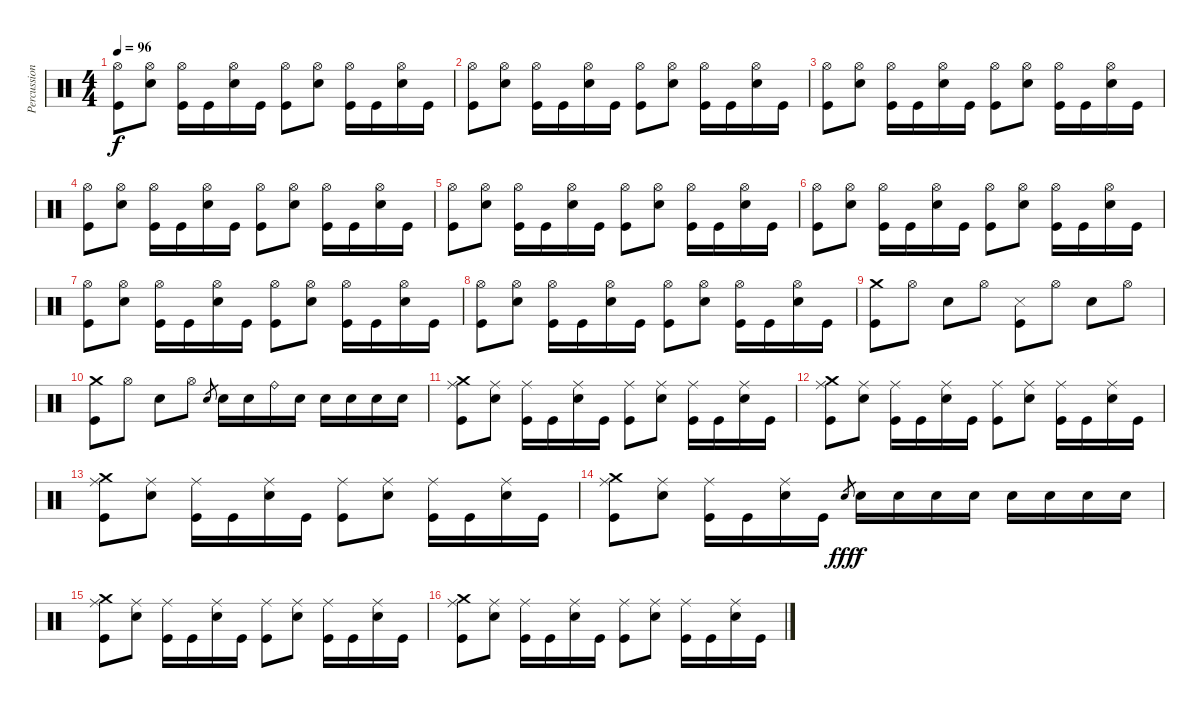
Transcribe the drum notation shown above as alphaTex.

\track ("Percussion" "Percussion") {instrument percussion}
\staff {score}
\articulation defaults
\ts (4 4)
\tempo 96
\clef neutral
\ks c
("Hi-Hat (open)" "Kick (hit)").8{dy f} ("Hi-Hat (open)" "Electric Snare (hit)").8 ("Hi-Hat (open)" "Kick (hit)").16 "Kick (hit)".16 ("Hi-Hat (open)" "Electric Snare (hit)").16 "Kick (hit)".16 ("Hi-Hat (open)" "Kick (hit)").8 ("Hi-Hat (open)" "Electric Snare (hit)").8 ("Hi-Hat (open)" "Kick (hit)").16 "Kick (hit)".16 ("Hi-Hat (open)" "Electric Snare (hit)").16 "Kick (hit)".16 |
("Hi-Hat (open)" "Kick (hit)").8 ("Hi-Hat (open)" "Electric Snare (hit)").8 ("Hi-Hat (open)" "Kick (hit)").16 "Kick (hit)".16 ("Hi-Hat (open)" "Electric Snare (hit)").16 "Kick (hit)".16 ("Hi-Hat (open)" "Kick (hit)").8 ("Hi-Hat (open)" "Electric Snare (hit)").8 ("Hi-Hat (open)" "Kick (hit)").16 "Kick (hit)".16 ("Hi-Hat (open)" "Electric Snare (hit)").16 "Kick (hit)".16 |
("Hi-Hat (open)" "Kick (hit)").8 ("Hi-Hat (open)" "Electric Snare (hit)").8 ("Hi-Hat (open)" "Kick (hit)").16 "Kick (hit)".16 ("Hi-Hat (open)" "Electric Snare (hit)").16 "Kick (hit)".16 ("Hi-Hat (open)" "Kick (hit)").8 ("Hi-Hat (open)" "Electric Snare (hit)").8 ("Hi-Hat (open)" "Kick (hit)").16 "Kick (hit)".16 ("Hi-Hat (open)" "Electric Snare (hit)").16 "Kick (hit)".16 |
("Hi-Hat (open)" "Kick (hit)").8 ("Hi-Hat (open)" "Electric Snare (hit)").8 ("Hi-Hat (open)" "Kick (hit)").16 "Kick (hit)".16 ("Hi-Hat (open)" "Electric Snare (hit)").16 "Kick (hit)".16 ("Hi-Hat (open)" "Kick (hit)").8 ("Hi-Hat (open)" "Electric Snare (hit)").8 ("Hi-Hat (open)" "Kick (hit)").16 "Kick (hit)".16 ("Hi-Hat (open)" "Electric Snare (hit)").16 "Kick (hit)".16 |
("Hi-Hat (open)" "Kick (hit)").8 ("Hi-Hat (open)" "Electric Snare (hit)").8 ("Hi-Hat (open)" "Kick (hit)").16 "Kick (hit)".16 ("Hi-Hat (open)" "Electric Snare (hit)").16 "Kick (hit)".16 ("Hi-Hat (open)" "Kick (hit)").8 ("Hi-Hat (open)" "Electric Snare (hit)").8 ("Hi-Hat (open)" "Kick (hit)").16 "Kick (hit)".16 ("Hi-Hat (open)" "Electric Snare (hit)").16 "Kick (hit)".16 |
("Hi-Hat (open)" "Kick (hit)").8 ("Hi-Hat (open)" "Electric Snare (hit)").8 ("Hi-Hat (open)" "Kick (hit)").16 "Kick (hit)".16 ("Hi-Hat (open)" "Electric Snare (hit)").16 "Kick (hit)".16 ("Hi-Hat (open)" "Kick (hit)").8 ("Hi-Hat (open)" "Electric Snare (hit)").8 ("Hi-Hat (open)" "Kick (hit)").16 "Kick (hit)".16 ("Hi-Hat (open)" "Electric Snare (hit)").16 "Kick (hit)".16 |
("Hi-Hat (open)" "Kick (hit)").8 ("Hi-Hat (open)" "Electric Snare (hit)").8 ("Hi-Hat (open)" "Kick (hit)").16 "Kick (hit)".16 ("Hi-Hat (open)" "Electric Snare (hit)").16 "Kick (hit)".16 ("Hi-Hat (open)" "Kick (hit)").8 ("Hi-Hat (open)" "Electric Snare (hit)").8 ("Hi-Hat (open)" "Kick (hit)").16 "Kick (hit)".16 ("Hi-Hat (open)" "Electric Snare (hit)").16 "Kick (hit)".16 |
("Hi-Hat (open)" "Kick (hit)").8 ("Hi-Hat (open)" "Electric Snare (hit)").8 ("Hi-Hat (open)" "Kick (hit)").16 "Kick (hit)".16 ("Hi-Hat (open)" "Electric Snare (hit)").16 "Kick (hit)".16 ("Hi-Hat (open)" "Kick (hit)").8 ("Hi-Hat (open)" "Electric Snare (hit)").8 ("Hi-Hat (open)" "Kick (hit)").16 "Kick (hit)".16 ("Hi-Hat (open)" "Electric Snare (hit)").16 "Kick (hit)".16 |
("Crash medium (hit)" "Kick (hit)").8 "Hi-Hat (open)".8 "Electric Snare (hit)".8 "Hi-Hat (open)".8 ("Snare (side stick) 3" "Kick (hit)").8 "Hi-Hat (open)".8 "Electric Snare (hit)".8 "Hi-Hat (open)".8 |
("Crash medium (hit)" "Kick (hit)").8 "Hi-Hat (open)".8 "Electric Snare (hit)".8 "Hi-Hat (open)".8 "Electric Snare (hit)".8{gr} "Electric Snare (hit)".16 "Electric Snare (hit)".16 "Ride (bell)".16 "Electric Snare (hit)".16 "Electric Snare (hit)".16 "Electric Snare (hit)".16 "Electric Snare (hit)".16 "Electric Snare (hit)".16 |
("Crash medium (hit)" "Ride (middle)" "Kick (hit)").8 ("Ride (middle)" "Electric Snare (hit)").8 ("Ride (middle)" "Kick (hit)").16 "Kick (hit)".16 ("Ride (middle)" "Electric Snare (hit)").16 "Kick (hit)".16 ("Ride (middle)" "Kick (hit)").8 ("Ride (middle)" "Electric Snare (hit)").8 ("Ride (middle)" "Kick (hit)").16 "Kick (hit)".16 ("Ride (middle)" "Electric Snare (hit)").16 "Kick (hit)".16 |
("Crash medium (hit)" "Ride (middle)" "Kick (hit)").8 ("Ride (middle)" "Electric Snare (hit)").8 ("Ride (middle)" "Kick (hit)").16 "Kick (hit)".16 ("Ride (middle)" "Electric Snare (hit)").16 "Kick (hit)".16 ("Ride (middle)" "Kick (hit)").8 ("Ride (middle)" "Electric Snare (hit)").8 ("Ride (middle)" "Kick (hit)").16 "Kick (hit)".16 ("Ride (middle)" "Electric Snare (hit)").16 "Kick (hit)".16 |
("Crash medium (hit)" "Ride (middle)" "Kick (hit)").8 ("Ride (middle)" "Electric Snare (hit)").8 ("Ride (middle)" "Kick (hit)").16 "Kick (hit)".16 ("Ride (middle)" "Electric Snare (hit)").16 "Kick (hit)".16 ("Ride (middle)" "Kick (hit)").8 ("Ride (middle)" "Electric Snare (hit)").8 ("Ride (middle)" "Kick (hit)").16 "Kick (hit)".16 ("Ride (middle)" "Electric Snare (hit)").16 "Kick (hit)".16 |
("Crash medium (hit)" "Ride (middle)" "Kick (hit)").8 ("Ride (middle)" "Electric Snare (hit)").8 ("Ride (middle)" "Kick (hit)").16 "Kick (hit)".16 ("Ride (middle)" "Electric Snare (hit)").16 "Kick (hit)".16 "Electric Snare (hit)".8{gr dy fff} "Electric Snare (hit)".16{dy f} "Electric Snare (hit)".16 "Electric Snare (hit)".16 "Electric Snare (hit)".16 "Electric Snare (hit)".16 "Electric Snare (hit)".16 "Electric Snare (hit)".16 "Electric Snare (hit)".16 |
("Crash medium (hit)" "Ride (middle)" "Kick (hit)").8 ("Ride (middle)" "Electric Snare (hit)").8 ("Ride (middle)" "Kick (hit)").16 "Kick (hit)".16 ("Ride (middle)" "Electric Snare (hit)").16 "Kick (hit)".16 ("Ride (middle)" "Kick (hit)").8 ("Ride (middle)" "Electric Snare (hit)").8 ("Ride (middle)" "Kick (hit)").16 "Kick (hit)".16 ("Ride (middle)" "Electric Snare (hit)").16 "Kick (hit)".16 |
("Crash medium (hit)" "Ride (middle)" "Kick (hit)").8 ("Ride (middle)" "Electric Snare (hit)").8 ("Ride (middle)" "Kick (hit)").16 "Kick (hit)".16 ("Ride (middle)" "Electric Snare (hit)").16 "Kick (hit)".16 ("Ride (middle)" "Kick (hit)").8 ("Ride (middle)" "Electric Snare (hit)").8 ("Ride (middle)" "Kick (hit)").16 "Kick (hit)".16 ("Ride (middle)" "Electric Snare (hit)").16 "Kick (hit)".16
